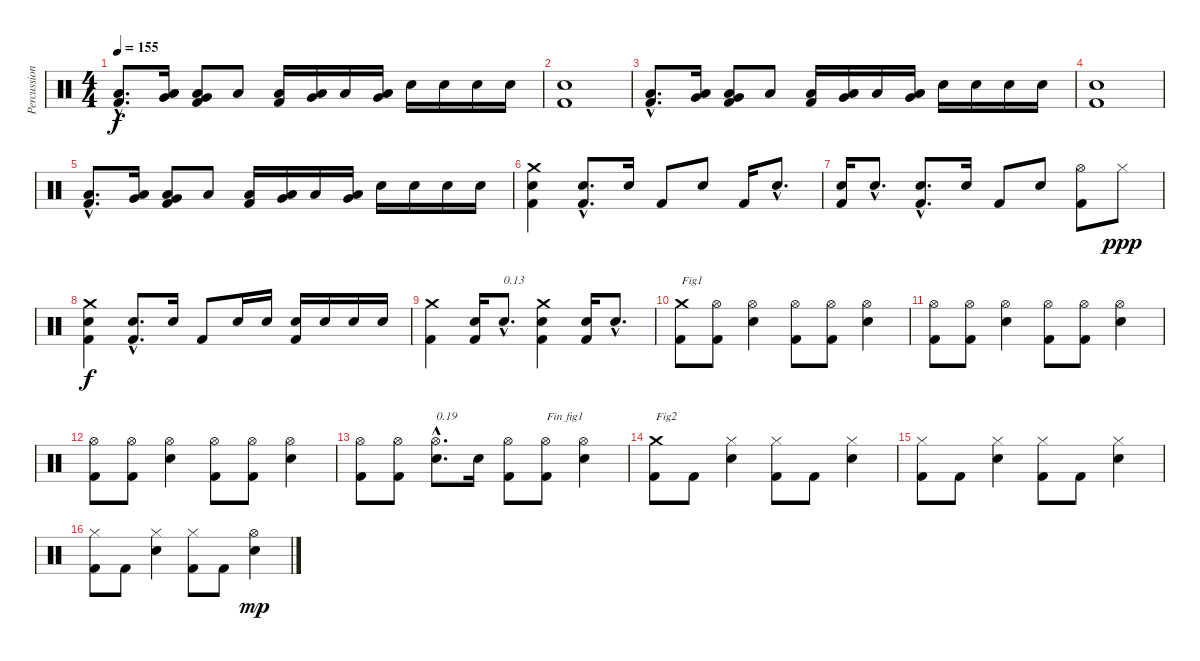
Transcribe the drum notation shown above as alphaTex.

\track ("Percussions" "Percussion") {instrument percussion}
\staff {score}
\articulation defaults
\ts (4 4)
\tempo 155
\clef neutral
\ks c
("Kick (hit) 2"{hac} "Low Floor Tom (hit)"{hac}).8{d dy f} ("Very Low Tom (hit)" "Low Floor Tom (hit)").16 ("Kick (hit) 2" "Very Low Tom (hit)" "Low Floor Tom (hit)").8 "Low Floor Tom (hit)".8 ("Kick (hit) 2" "Low Floor Tom (hit)").16 ("Very Low Tom (hit)" "Low Floor Tom (hit)").16 "Low Floor Tom (hit)".16 ("Very Low Tom (hit)" "Low Floor Tom (hit)").16 "Snare (hit) 2".16 "Snare (hit) 2".16 "Snare (hit) 2".16 "Snare (hit) 2".16 |
("Kick (hit) 2" "Electric Snare (hit)").1 |
("Kick (hit) 2"{hac} "Low Floor Tom (hit)"{hac}).8{d} ("Very Low Tom (hit)" "Low Floor Tom (hit)").16 ("Kick (hit) 2" "Very Low Tom (hit)" "Low Floor Tom (hit)").8 "Low Floor Tom (hit)".8 ("Kick (hit) 2" "Low Floor Tom (hit)").16 ("Very Low Tom (hit)" "Low Floor Tom (hit)").16 "Low Floor Tom (hit)".16 ("Very Low Tom (hit)" "Low Floor Tom (hit)").16 "Snare (hit) 2".16 "Snare (hit) 2".16 "Snare (hit) 2".16 "Snare (hit) 2".16 |
("Kick (hit) 2" "Electric Snare (hit)").1 |
("Kick (hit) 2"{hac} "Low Floor Tom (hit)"{hac}).8{d} ("Very Low Tom (hit)" "Low Floor Tom (hit)").16 ("Kick (hit) 2" "Very Low Tom (hit)" "Low Floor Tom (hit)").8 "Low Floor Tom (hit)".8 ("Kick (hit) 2" "Low Floor Tom (hit)").16 ("Very Low Tom (hit)" "Low Floor Tom (hit)").16 "Low Floor Tom (hit)".16 ("Very Low Tom (hit)" "Low Floor Tom (hit)").16 "Snare (hit) 2".16 "Snare (hit) 2".16 "Snare (hit) 2".16 "Snare (hit) 2".16 |
("Kick (hit) 2" "Electric Snare (hit)" "Crash medium (hit)").4 ("Kick (hit) 2"{hac} "Snare (hit) 2"{hac}).8{d} "Snare (hit) 2".16 "Kick (hit) 2".8 "Snare (hit) 2".8 "Kick (hit) 2".16 "Snare (hit) 2"{hac}.8{d} |
("Kick (hit) 2" "Snare (hit) 2").16 "Snare (hit) 2"{hac}.8{d} ("Kick (hit) 2"{hac} "Snare (hit) 2"{hac}).8{d} "Snare (hit) 2".16 "Kick (hit) 2".8 "Snare (hit) 2".8 ("Kick (hit) 2" "Hi-Hat (open)").8 "Hi-Hat (closed)".8{dy ppp} |
("Kick (hit) 2" "Snare (hit) 2" "Crash medium (hit)").4{dy f} ("Kick (hit) 2"{hac} "Snare (hit) 2"{hac}).8{d} "Snare (hit) 2".16 "Kick (hit) 2".8 "Snare (hit) 2".16 "Snare (hit) 2".16 ("Kick (hit) 2" "Snare (hit) 2").16 "Snare (hit) 2".16 "Snare (hit) 2".16 "Snare (hit) 2".16 |
("Kick (hit) 2" "Crash medium (hit)").4 ("Kick (hit) 2" "Snare (hit) 2").16 "Snare (hit) 2"{hac}.8{d txt "0.13"} ("Kick (hit) 2" "Electric Snare (hit)" "Crash medium (hit)").4 ("Kick (hit) 2" "Snare (hit) 2").16 "Snare (hit) 2"{hac}.8{d} |
("Kick (hit) 2" "Crash medium (hit)").8{txt "Fig1"} ("Kick (hit) 2" "Hi-Hat (open)").8 ("Electric Snare (hit)" "Hi-Hat (open)").4 ("Kick (hit) 2" "Hi-Hat (open)").8 ("Kick (hit) 2" "Hi-Hat (open)").8 ("Electric Snare (hit)" "Hi-Hat (open)").4 |
("Kick (hit) 2" "Hi-Hat (open)").8 ("Kick (hit) 2" "Hi-Hat (open)").8 ("Electric Snare (hit)" "Hi-Hat (open)").4 ("Kick (hit) 2" "Hi-Hat (open)").8 ("Kick (hit) 2" "Hi-Hat (open)").8 ("Electric Snare (hit)" "Hi-Hat (open)").4 |
("Kick (hit) 2" "Hi-Hat (open)").8 ("Kick (hit) 2" "Hi-Hat (open)").8 ("Electric Snare (hit)" "Hi-Hat (open)").4 ("Kick (hit) 2" "Hi-Hat (open)").8 ("Kick (hit) 2" "Hi-Hat (open)").8 ("Electric Snare (hit)" "Hi-Hat (open)").4 |
("Kick (hit) 2" "Hi-Hat (open)").8 ("Kick (hit) 2" "Hi-Hat (open)").8 ("Electric Snare (hit)"{hac} "Hi-Hat (open)"{hac}).8{d txt "0.19"} "Electric Snare (hit)".16 ("Kick (hit) 2" "Hi-Hat (open)").8 ("Kick (hit) 2" "Hi-Hat (open)").8{txt "Fin fig1"} ("Electric Snare (hit)" "Hi-Hat (open)").4 |
("Kick (hit) 2" "Crash medium (hit)").8{txt "Fig2"} "Kick (hit) 2".8 ("Electric Snare (hit)" "Hi-Hat (closed)").4 ("Kick (hit) 2" "Hi-Hat (closed)").8 "Kick (hit) 2".8 ("Electric Snare (hit)" "Hi-Hat (closed)").4 |
("Kick (hit) 2" "Hi-Hat (closed)").8 "Kick (hit) 2".8 ("Electric Snare (hit)" "Hi-Hat (closed)").4 ("Kick (hit) 2" "Hi-Hat (closed)").8 "Kick (hit) 2".8 ("Electric Snare (hit)" "Hi-Hat (closed)").4 |
("Kick (hit) 2" "Hi-Hat (closed)").8 "Kick (hit) 2".8 ("Electric Snare (hit)" "Hi-Hat (closed)").4 ("Kick (hit) 2" "Hi-Hat (closed)").8 "Kick (hit) 2".8 ("Electric Snare (hit)" "Hi-Hat (open)").4{dy mp}
